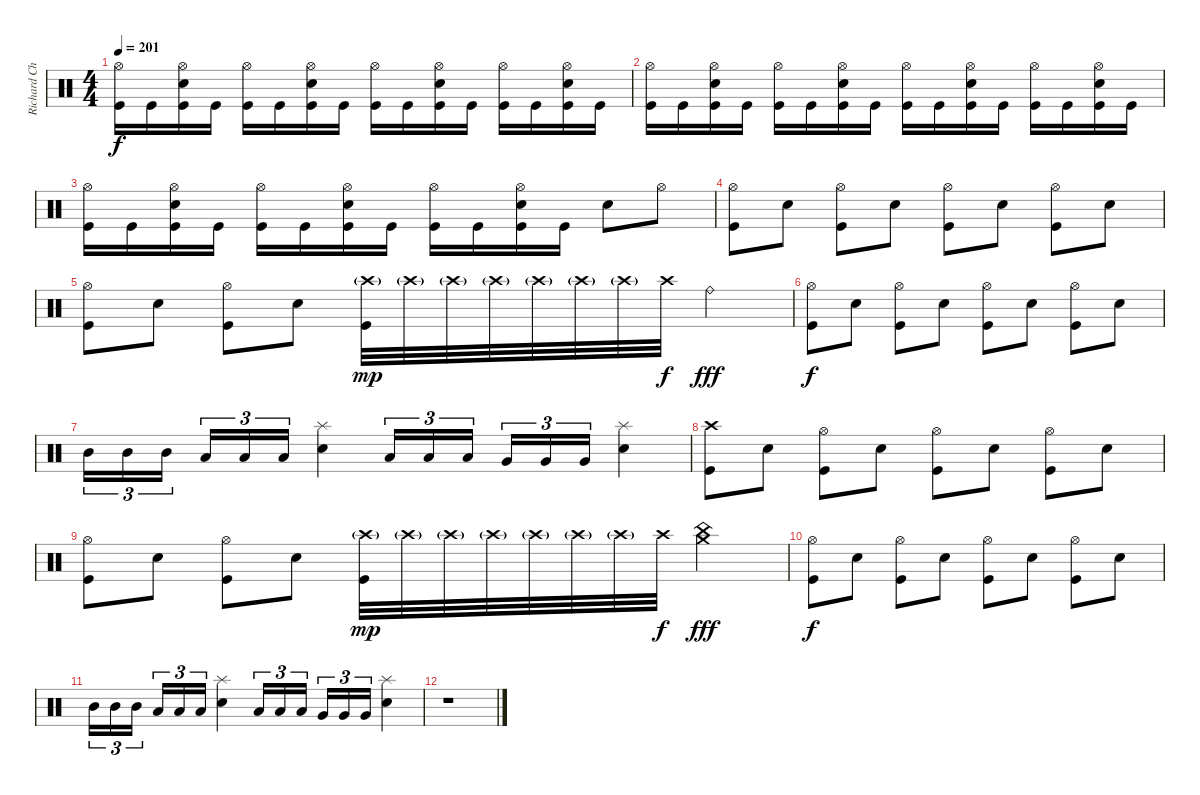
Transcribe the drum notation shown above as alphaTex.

\track ("Richard Christy " "Richard Ch") {instrument percussion}
\staff {score}
\articulation defaults
\ts (4 4)
\tempo 201
\clef neutral
\ks c
("Hi-Hat (open)" "Kick (hit)").16{dy f} "Kick (hit)".16 ("Hi-Hat (open)" "Electric Snare (hit)" "Kick (hit)").16 "Kick (hit)".16 ("Hi-Hat (open)" "Kick (hit)").16 "Kick (hit)".16 ("Hi-Hat (open)" "Electric Snare (hit)" "Kick (hit)").16 "Kick (hit)".16 ("Hi-Hat (open)" "Kick (hit)").16 "Kick (hit)".16 ("Hi-Hat (open)" "Electric Snare (hit)" "Kick (hit)").16 "Kick (hit)".16 ("Hi-Hat (open)" "Kick (hit)").16 "Kick (hit)".16 ("Hi-Hat (open)" "Electric Snare (hit)" "Kick (hit)").16 "Kick (hit)".16 |
("Hi-Hat (open)" "Kick (hit)").16 "Kick (hit)".16 ("Hi-Hat (open)" "Electric Snare (hit)" "Kick (hit)").16 "Kick (hit)".16 ("Hi-Hat (open)" "Kick (hit)").16 "Kick (hit)".16 ("Hi-Hat (open)" "Electric Snare (hit)" "Kick (hit)").16 "Kick (hit)".16 ("Hi-Hat (open)" "Kick (hit)").16 "Kick (hit)".16 ("Hi-Hat (open)" "Electric Snare (hit)" "Kick (hit)").16 "Kick (hit)".16 ("Hi-Hat (open)" "Kick (hit)").16 "Kick (hit)".16 ("Hi-Hat (open)" "Electric Snare (hit)" "Kick (hit)").16 "Kick (hit)".16 |
("Hi-Hat (open)" "Kick (hit)").16 "Kick (hit)".16 ("Hi-Hat (open)" "Electric Snare (hit)" "Kick (hit)").16 "Kick (hit)".16 ("Hi-Hat (open)" "Kick (hit)").16 "Kick (hit)".16 ("Hi-Hat (open)" "Electric Snare (hit)" "Kick (hit)").16 "Kick (hit)".16 ("Hi-Hat (open)" "Kick (hit)").16 "Kick (hit)".16 ("Hi-Hat (open)" "Electric Snare (hit)" "Kick (hit)").16 "Kick (hit)".16 "Electric Snare (hit)".8 "Hi-Hat (open)".8 |
("Hi-Hat (open)" "Kick (hit)").8 "Electric Snare (hit)".8 ("Hi-Hat (open)" "Kick (hit)").8 "Electric Snare (hit)".8 ("Hi-Hat (open)" "Kick (hit)").8 "Electric Snare (hit)".8 ("Hi-Hat (open)" "Kick (hit)").8 "Electric Snare (hit)".8 |
("Hi-Hat (open)" "Kick (hit)").8 "Electric Snare (hit)".8 ("Hi-Hat (open)" "Kick (hit)").8 "Electric Snare (hit)".8 ("Crash high (hit)"{g} "Kick (hit)").32{dy mp} "Crash high (hit)"{g}.32 "Crash high (hit)"{g}.32 "Crash high (hit)"{g}.32 "Crash high (hit)"{g}.32 "Crash high (hit)"{g}.32 "Crash high (hit)"{g}.32 "Crash high (hit)".32{dy f} "Ride (bell)".4{dy fff} |
("Hi-Hat (open)" "Kick (hit)").8{dy f} "Electric Snare (hit)".8 ("Hi-Hat (open)" "Kick (hit)").8 "Electric Snare (hit)".8 ("Hi-Hat (open)" "Kick (hit)").8 "Electric Snare (hit)".8 ("Hi-Hat (open)" "Kick (hit)").8 "Electric Snare (hit)".8 |
"Mid Tom (hit)".16{tu (3 2)} "Mid Tom (hit)".16{tu (3 2)} "Mid Tom (hit)".16{tu (3 2)} "Low Tom (hit)".16{tu (3 2)} "Low Tom (hit)".16{tu (3 2)} "Low Tom (hit)".16{tu (3 2)} ("Splash (hit)" "Electric Snare (hit)").4 "Low Tom (hit)".16{tu (3 2)} "Low Tom (hit)".16{tu (3 2)} "Low Tom (hit)".16{tu (3 2)} "Very Low Tom (hit)".16{tu (3 2)} "Very Low Tom (hit)".16{tu (3 2)} "Very Low Tom (hit)".16{tu (3 2)} ("Splash (hit)" "Electric Snare (hit)").4 |
("Crash high (hit)" "Kick (hit)").8 "Electric Snare (hit)".8 ("Hi-Hat (open)" "Kick (hit)").8 "Electric Snare (hit)".8 ("Hi-Hat (open)" "Kick (hit)").8 "Electric Snare (hit)".8 ("Hi-Hat (open)" "Kick (hit)").8 "Electric Snare (hit)".8 |
("Hi-Hat (open)" "Kick (hit)").8 "Electric Snare (hit)".8 ("Hi-Hat (open)" "Kick (hit)").8 "Electric Snare (hit)".8 ("Crash high (hit)"{g} "Kick (hit)").32{dy mp} "Crash high (hit)"{g}.32 "Crash high (hit)"{g}.32 "Crash high (hit)"{g}.32 "Crash high (hit)"{g}.32 "Crash high (hit)"{g}.32 "Crash high (hit)"{g}.32 "Crash high (hit)".32{dy f} ("Crash medium (hit)" "China (hit)").4{dy fff} |
("Hi-Hat (open)" "Kick (hit)").8{dy f} "Electric Snare (hit)".8 ("Hi-Hat (open)" "Kick (hit)").8 "Electric Snare (hit)".8 ("Hi-Hat (open)" "Kick (hit)").8 "Electric Snare (hit)".8 ("Hi-Hat (open)" "Kick (hit)").8 "Electric Snare (hit)".8 |
"Mid Tom (hit)".16{tu (3 2)} "Mid Tom (hit)".16{tu (3 2)} "Mid Tom (hit)".16{tu (3 2)} "Low Tom (hit)".16{tu (3 2)} "Low Tom (hit)".16{tu (3 2)} "Low Tom (hit)".16{tu (3 2)} ("Splash (hit)" "Electric Snare (hit)").4 "Low Tom (hit)".16{tu (3 2)} "Low Tom (hit)".16{tu (3 2)} "Low Tom (hit)".16{tu (3 2)} "Very Low Tom (hit)".16{tu (3 2)} "Very Low Tom (hit)".16{tu (3 2)} "Very Low Tom (hit)".16{tu (3 2)} ("Splash (hit)" "Electric Snare (hit)").4 |
r.1
